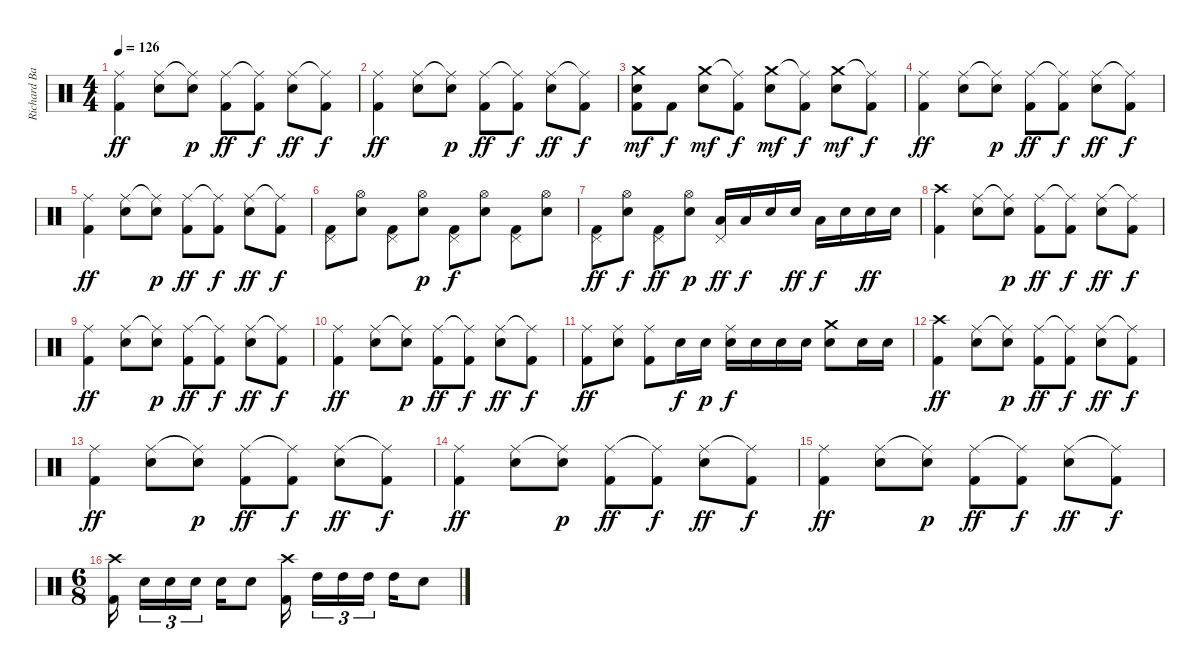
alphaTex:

\track ("Richard Bailey" "Richard Ba") {instrument percussion}
\staff {score}
\articulation defaults
\ts (4 4)
\tempo 126
\clef neutral
\ks c
("Ride (middle)" "Kick (hit) 2").4{dy ff} ("Ride (middle)" "Snare (hit) 2").8 ("Ride (middle)"{t} "Snare (hit) 2").8{dy p} ("Ride (middle)" "Kick (hit) 2").8{dy ff} ("Ride (middle)"{t} "Kick (hit) 2").8{dy f} ("Ride (middle)" "Snare (hit) 2").8{dy ff} ("Ride (middle)"{t} "Kick (hit) 2").8{dy f} |
("Ride (middle)" "Kick (hit) 2").4{dy ff} ("Ride (middle)" "Snare (hit) 2").8 ("Ride (middle)"{t} "Snare (hit) 2").8{dy p} ("Ride (middle)" "Kick (hit) 2").8{dy ff} ("Ride (middle)"{t} "Kick (hit) 2").8{dy f} ("Ride (middle)" "Snare (hit) 2").8{dy ff} ("Ride (middle)"{t} "Kick (hit) 2").8{dy f} |
("Crash medium (hit)" "Snare (hit) 2" "Kick (hit) 2").8{dy mf} "Kick (hit) 2".8{dy f} ("Crash medium (hit)" "Snare (hit) 2").8{dy mf} ("Ride (middle)"{t} "Kick (hit) 2").8{dy f} ("Crash medium (hit)" "Snare (hit) 2").8{dy mf} ("Ride (middle)"{t} "Kick (hit) 2").8{dy f} ("Crash medium (hit)" "Snare (hit) 2").8{dy mf} ("Ride (middle)"{t} "Kick (hit) 2").8{dy f} |
("Ride (middle)" "Kick (hit) 2").4{dy ff} ("Ride (middle)" "Snare (hit) 2").8 ("Ride (middle)"{t} "Snare (hit) 2").8{dy p} ("Ride (middle)" "Kick (hit) 2").8{dy ff} ("Ride (middle)"{t} "Kick (hit) 2").8{dy f} ("Ride (middle)" "Snare (hit) 2").8{dy ff} ("Ride (middle)"{t} "Kick (hit) 2").8{dy f} |
("Ride (middle)" "Kick (hit) 2").4{dy ff} ("Ride (middle)" "Snare (hit) 2").8 ("Ride (middle)"{t} "Snare (hit) 2").8{dy p} ("Ride (middle)" "Kick (hit) 2").8{dy ff} ("Ride (middle)"{t} "Kick (hit) 2").8{dy f} ("Ride (middle)" "Snare (hit) 2").8{dy ff} ("Ride (middle)"{t} "Kick (hit) 2").8{dy f} |
("Pedal Hi-Hat (hit)" "Kick (hit) 2").8 ("Hi-Hat (open)" "Snare (hit) 2").8 ("Pedal Hi-Hat (hit)" "Kick (hit) 2").8 ("Hi-Hat (open)" "Snare (hit) 2").8{dy p} ("Pedal Hi-Hat (hit)" "Kick (hit) 2").8{dy f} ("Hi-Hat (open)" "Snare (hit) 2").8 ("Pedal Hi-Hat (hit)" "Kick (hit) 2").8 ("Hi-Hat (open)" "Snare (hit) 2").8 |
("Pedal Hi-Hat (hit)" "Kick (hit) 2").8{dy ff} ("Hi-Hat (open)" "Snare (hit) 2").8{dy f} ("Pedal Hi-Hat (hit)" "Kick (hit) 2").8{dy ff} ("Hi-Hat (open)" "Snare (hit) 2").8{dy p} ("Pedal Hi-Hat (hit)" "Low Floor Tom (hit)").16{dy ff} "Low Floor Tom (hit)".16{dy f} "Electric Snare (hit)".16 "Electric Snare (hit)".16{dy ff} "Low Floor Tom (hit)".16{dy f} "Electric Snare (hit)".16 "Electric Snare (hit)".16{dy ff} "Electric Snare (hit)".16 |
("Crash high (hit)" "Kick (hit) 2").4 ("Ride (middle)" "Snare (hit) 2").8 ("Ride (middle)"{t} "Snare (hit) 2").8{dy p} ("Ride (middle)" "Kick (hit) 2").8{dy ff} ("Ride (middle)"{t} "Kick (hit) 2").8{dy f} ("Ride (middle)" "Snare (hit) 2").8{dy ff} ("Ride (middle)"{t} "Kick (hit) 2").8{dy f} |
("Ride (middle)" "Kick (hit) 2").4{dy ff} ("Ride (middle)" "Snare (hit) 2").8 ("Ride (middle)"{t} "Snare (hit) 2").8{dy p} ("Ride (middle)" "Kick (hit) 2").8{dy ff} ("Ride (middle)"{t} "Kick (hit) 2").8{dy f} ("Ride (middle)" "Snare (hit) 2").8{dy ff} ("Ride (middle)"{t} "Kick (hit) 2").8{dy f} |
("Ride (middle)" "Kick (hit) 2").4{dy ff} ("Ride (middle)" "Snare (hit) 2").8 ("Ride (middle)"{t} "Snare (hit) 2").8{dy p} ("Ride (middle)" "Kick (hit) 2").8{dy ff} ("Ride (middle)"{t} "Kick (hit) 2").8{dy f} ("Ride (middle)" "Snare (hit) 2").8{dy ff} ("Ride (middle)"{t} "Kick (hit) 2").8{dy f} |
("Ride (middle)" "Kick (hit) 2").8{dy ff} ("Ride (middle)" "Snare (hit) 2").8 ("Ride (middle)" "Kick (hit) 2").8 "Electric Snare (hit)".16{dy f} "Electric Snare (hit)".16{dy p} ("Ride (middle)" "Electric Snare (hit)").16{dy f} "Electric Snare (hit)".16 "Electric Snare (hit)".16 "Electric Snare (hit)".16 ("Crash medium (hit)" "Snare (hit) 2").8 "Snare (hit) 2".16 "Snare (hit) 2".16 |
("Crash high (hit)" "Kick (hit) 2").4{dy ff} ("Ride (middle)" "Snare (hit) 2").8 ("Ride (middle)"{t} "Snare (hit) 2").8{dy p} ("Ride (middle)" "Kick (hit) 2").8{dy ff} ("Ride (middle)"{t} "Kick (hit) 2").8{dy f} ("Ride (middle)" "Snare (hit) 2").8{dy ff} ("Ride (middle)"{t} "Kick (hit) 2").8{dy f} |
("Ride (middle)" "Kick (hit) 2").4{dy ff} ("Ride (middle)" "Snare (hit) 2").8 ("Ride (middle)"{t} "Snare (hit) 2").8{dy p} ("Ride (middle)" "Kick (hit) 2").8{dy ff} ("Ride (middle)"{t} "Kick (hit) 2").8{dy f} ("Ride (middle)" "Snare (hit) 2").8{dy ff} ("Ride (middle)"{t} "Kick (hit) 2").8{dy f} |
("Ride (middle)" "Kick (hit) 2").4{dy ff} ("Ride (middle)" "Snare (hit) 2").8 ("Ride (middle)"{t} "Snare (hit) 2").8{dy p} ("Ride (middle)" "Kick (hit) 2").8{dy ff} ("Ride (middle)"{t} "Kick (hit) 2").8{dy f} ("Ride (middle)" "Snare (hit) 2").8{dy ff} ("Ride (middle)"{t} "Kick (hit) 2").8{dy f} |
("Ride (middle)" "Kick (hit) 2").4{dy ff} ("Ride (middle)" "Snare (hit) 2").8 ("Ride (middle)"{t} "Snare (hit) 2").8{dy p} ("Ride (middle)" "Kick (hit) 2").8{dy ff} ("Ride (middle)"{t} "Kick (hit) 2").8{dy f} ("Ride (middle)" "Snare (hit) 2").8{dy ff} ("Ride (middle)"{t} "Kick (hit) 2").8{dy f} |
\ts (6 8)
("Crash high (hit)" "Kick (hit) 2").16 "Snare (hit) 2".16{tu (3 2)} "Snare (hit) 2".16{tu (3 2)} "Snare (hit) 2".16{tu (3 2)} "Snare (hit) 2".16 "Electric Snare (hit)".8 ("Crash high (hit)" "Kick (hit) 2").16 "High Tom (hit)".16{tu (3 2)} "High Tom (hit)".16{tu (3 2)} "High Tom (hit)".16{tu (3 2)} "High Tom (hit)".16 "Electric Snare (hit)".8
